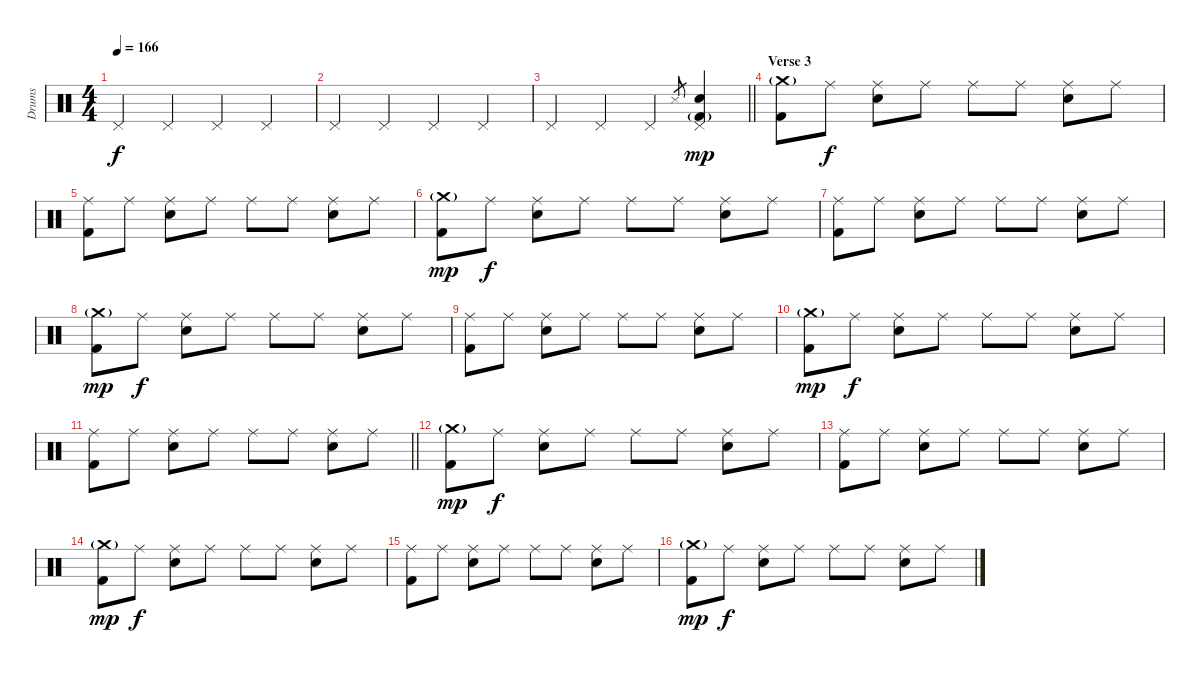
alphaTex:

\track ("Drums" "Drums") {instrument percussion}
\staff {score}
\articulation defaults
\ts (4 4)
\tempo 166
\clef neutral
\ks c "Pedal Hi-Hat (hit)".4{dy f} "Pedal Hi-Hat (hit)".4 "Pedal Hi-Hat (hit)".4 "Pedal Hi-Hat (hit)".4
|
"Pedal Hi-Hat (hit)".4 "Pedal Hi-Hat (hit)".4 "Pedal Hi-Hat (hit)".4 "Pedal Hi-Hat (hit)".4 |
\barLineRight lightlight "Pedal Hi-Hat (hit)".4 "Pedal Hi-Hat (hit)".4 "Pedal Hi-Hat (hit)".4 "Snare (side stick) 3".8{gr}
("Pedal Hi-Hat (hit)" "Electric Snare (hit)" "Kick (hit) 2"{g}).4{dy mp} |
\section ("" "Verse 3")
("Crash medium (hit)"{g} "Kick (hit) 2").8 "Ride (middle)".8{dy f} ("Ride (middle)" "Electric Snare (hit)").8 "Ride (middle)".8 "Ride (middle)".8 "Ride (middle)".8 ("Ride (middle)" "Electric Snare (hit)").8 "Ride (middle)".8 |
("Ride (middle)" "Kick (hit) 2").8 "Ride (middle)".8 ("Ride (middle)" "Electric Snare (hit)").8 "Ride (middle)".8 "Ride (middle)".8 "Ride (middle)".8 ("Ride (middle)" "Electric Snare (hit)").8 "Ride (middle)".8 |
("Crash medium (hit)"{g} "Kick (hit) 2").8{dy mp} "Ride (middle)".8{dy f} ("Ride (middle)" "Electric Snare (hit)").8 "Ride (middle)".8 "Ride (middle)".8 "Ride (middle)".8 ("Ride (middle)" "Electric Snare (hit)").8 "Ride (middle)".8 |
("Ride (middle)" "Kick (hit) 2").8 "Ride (middle)".8 ("Ride (middle)" "Electric Snare (hit)").8 "Ride (middle)".8 "Ride (middle)".8 "Ride (middle)".8 ("Ride (middle)" "Electric Snare (hit)").8 "Ride (middle)".8 |
("Crash medium (hit)"{g} "Kick (hit) 2").8{dy mp} "Ride (middle)".8{dy f} ("Ride (middle)" "Electric Snare (hit)").8 "Ride (middle)".8 "Ride (middle)".8 "Ride (middle)".8 ("Ride (middle)" "Electric Snare (hit)").8 "Ride (middle)".8 |
("Ride (middle)" "Kick (hit) 2").8 "Ride (middle)".8 ("Ride (middle)" "Electric Snare (hit)").8 "Ride (middle)".8 "Ride (middle)".8 "Ride (middle)".8 ("Ride (middle)" "Electric Snare (hit)").8 "Ride (middle)".8 |
("Crash medium (hit)"{g} "Kick (hit) 2").8{dy mp} "Ride (middle)".8{dy f} ("Ride (middle)" "Electric Snare (hit)").8 "Ride (middle)".8 "Ride (middle)".8 "Ride (middle)".8 ("Ride (middle)" "Electric Snare (hit)").8 "Ride (middle)".8 |
\barLineRight lightlight
("Ride (middle)" "Kick (hit) 2").8 "Ride (middle)".8 ("Ride (middle)" "Electric Snare (hit)").8 "Ride (middle)".8 "Ride (middle)".8 "Ride (middle)".8 ("Ride (middle)" "Electric Snare (hit)").8 "Ride (middle)".8 |
("Crash medium (hit)"{g} "Kick (hit) 2").8{dy mp} "Ride (middle)".8{dy f} ("Ride (middle)" "Electric Snare (hit)").8 "Ride (middle)".8 "Ride (middle)".8 "Ride (middle)".8 ("Ride (middle)" "Electric Snare (hit)").8 "Ride (middle)".8 |
("Ride (middle)" "Kick (hit) 2").8 "Ride (middle)".8 ("Ride (middle)" "Electric Snare (hit)").8 "Ride (middle)".8 "Ride (middle)".8 "Ride (middle)".8 ("Ride (middle)" "Electric Snare (hit)").8 "Ride (middle)".8 |
("Crash medium (hit)"{g} "Kick (hit) 2").8{dy mp} "Ride (middle)".8{dy f} ("Ride (middle)" "Electric Snare (hit)").8 "Ride (middle)".8 "Ride (middle)".8 "Ride (middle)".8 ("Ride (middle)" "Electric Snare (hit)").8 "Ride (middle)".8 |
("Ride (middle)" "Kick (hit) 2").8 "Ride (middle)".8 ("Ride (middle)" "Electric Snare (hit)").8 "Ride (middle)".8 "Ride (middle)".8 "Ride (middle)".8 ("Ride (middle)" "Electric Snare (hit)").8 "Ride (middle)".8 |
("Crash medium (hit)"{g} "Kick (hit) 2").8{dy mp} "Ride (middle)".8{dy f} ("Ride (middle)" "Electric Snare (hit)").8 "Ride (middle)".8 "Ride (middle)".8 "Ride (middle)".8 ("Ride (middle)" "Electric Snare (hit)").8 "Ride (middle)".8
